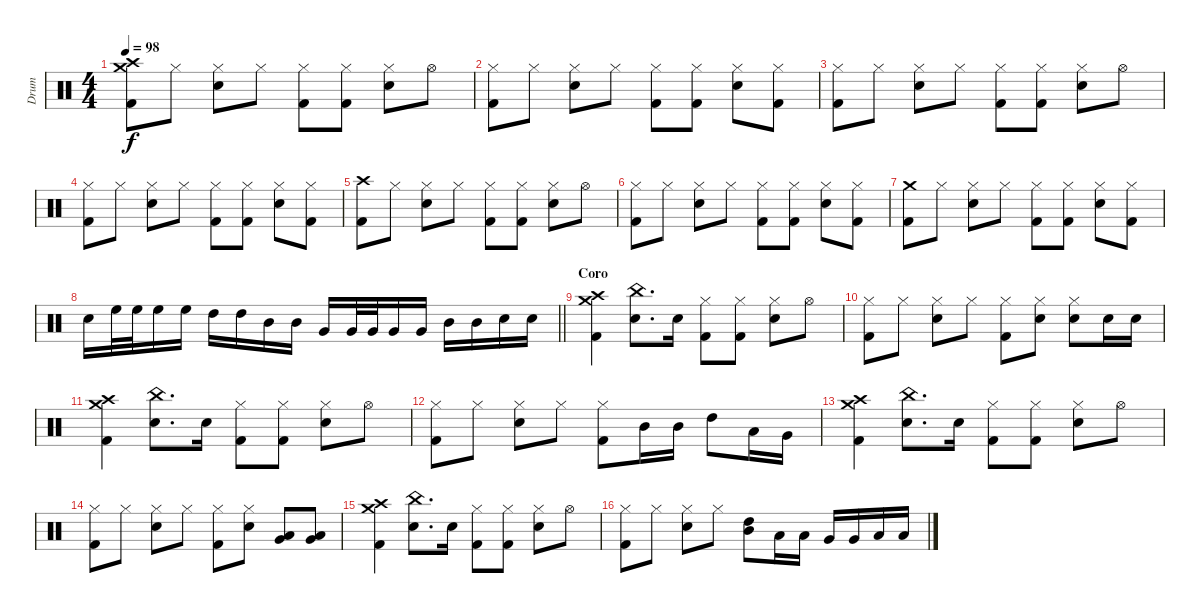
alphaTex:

\track ("Drum" "Drum") {instrument percussion}
\staff {score}
\articulation defaults
\ts (4 4)
\tempo 98
\clef neutral
\ks c
("Crash medium (hit)" "Crash high (hit)" "Kick (hit) 2").8{dy f} "Hi-Hat (closed)".8 ("Hi-Hat (closed)" "Snare (hit) 2").8 "Hi-Hat (closed)".8 ("Hi-Hat (closed)" "Kick (hit) 2").8 ("Hi-Hat (closed)" "Kick (hit) 2").8 ("Hi-Hat (closed)" "Snare (hit) 2").8 "Hi-Hat (open)".8 |
("Hi-Hat (closed)" "Kick (hit) 2").8 "Hi-Hat (closed)".8 ("Hi-Hat (closed)" "Snare (hit) 2").8 "Hi-Hat (closed)".8 ("Hi-Hat (closed)" "Kick (hit) 2").8 ("Hi-Hat (closed)" "Kick (hit) 2").8 ("Hi-Hat (closed)" "Snare (hit) 2").8 ("Hi-Hat (closed)" "Kick (hit) 2").8 |
("Hi-Hat (closed)" "Kick (hit) 2").8 "Hi-Hat (closed)".8 ("Hi-Hat (closed)" "Snare (hit) 2").8 "Hi-Hat (closed)".8 ("Hi-Hat (closed)" "Kick (hit) 2").8 ("Hi-Hat (closed)" "Kick (hit) 2").8 ("Hi-Hat (closed)" "Snare (hit) 2").8 "Hi-Hat (open)".8 |
("Hi-Hat (closed)" "Kick (hit) 2").8 "Hi-Hat (closed)".8 ("Hi-Hat (closed)" "Snare (hit) 2").8 "Hi-Hat (closed)".8 ("Hi-Hat (closed)" "Kick (hit) 2").8 ("Hi-Hat (closed)" "Kick (hit) 2").8 ("Hi-Hat (closed)" "Snare (hit) 2").8 ("Hi-Hat (closed)" "Kick (hit) 2").8 |
("Crash high (hit)" "Kick (hit) 2").8 "Hi-Hat (closed)".8 ("Hi-Hat (closed)" "Snare (hit) 2").8 "Hi-Hat (closed)".8 ("Hi-Hat (closed)" "Kick (hit) 2").8 ("Hi-Hat (closed)" "Kick (hit) 2").8 ("Hi-Hat (closed)" "Snare (hit) 2").8 "Hi-Hat (open)".8 |
("Hi-Hat (closed)" "Kick (hit) 2").8 "Hi-Hat (closed)".8 ("Hi-Hat (closed)" "Snare (hit) 2").8 "Hi-Hat (closed)".8 ("Hi-Hat (closed)" "Kick (hit) 2").8 ("Hi-Hat (closed)" "Kick (hit) 2").8 ("Hi-Hat (closed)" "Snare (hit) 2").8 ("Hi-Hat (closed)" "Kick (hit) 2").8 |
("Crash medium (hit)" "Kick (hit) 2").8 "Hi-Hat (closed)".8 ("Hi-Hat (closed)" "Snare (hit) 2").8 "Hi-Hat (closed)".8 ("Hi-Hat (closed)" "Kick (hit) 2").8 ("Hi-Hat (closed)" "Kick (hit) 2").8 ("Hi-Hat (closed)" "Snare (hit) 2").8 ("Hi-Hat (closed)" "Kick (hit) 2").8 |
\barLineRight lightlight "Snare (hit) 2".16 "High Floor Tom (hit)".32 "High Floor Tom (hit)".32 "High Floor Tom (hit)".16 "High Floor Tom (hit)".16 "High Tom (hit)".16 "High Tom (hit)".16 "Mid Tom (hit)".16 "Mid Tom (hit)".16 "Very Low Tom (hit)".16 "Very Low Tom (hit)".32 "Very Low Tom (hit)".32 "Very Low Tom (hit)".16 "Very Low Tom (hit)".16 "Mid Tom (hit)".16 "Mid Tom (hit)".16 "Snare (hit) 2".16 "Snare (hit) 2".16
|
\section ("" "Coro")
("Crash medium (hit)" "Crash high (hit)" "Kick (hit) 2").4 ("China (hit)" "Snare (hit) 2").8{d} "Snare (hit) 2".16 ("Hi-Hat (closed)" "Kick (hit) 2").8 ("Hi-Hat (closed)" "Kick (hit) 2").8 ("Hi-Hat (closed)" "Snare (hit) 2").8 "Hi-Hat (open)".8 |
("Hi-Hat (closed)" "Kick (hit) 2").8 "Hi-Hat (closed)".8 ("Hi-Hat (closed)" "Snare (hit) 2").8 "Hi-Hat (closed)".8 ("Hi-Hat (closed)" "Kick (hit) 2").8 ("Hi-Hat (closed)" "Snare (hit) 2").8 ("Hi-Hat (closed)" "Snare (hit) 2").8 "Snare (hit) 2".16 "Snare (hit) 2".16 |
("Crash medium (hit)" "Crash high (hit)" "Kick (hit) 2").4 ("China (hit)" "Snare (hit) 2").8{d} "Snare (hit) 2".16 ("Hi-Hat (closed)" "Kick (hit) 2").8 ("Hi-Hat (closed)" "Kick (hit) 2").8 ("Hi-Hat (closed)" "Snare (hit) 2").8 "Hi-Hat (open)".8 |
("Hi-Hat (closed)" "Kick (hit) 2").8 "Hi-Hat (closed)".8 ("Hi-Hat (closed)" "Snare (hit) 2").8 "Hi-Hat (closed)".8 ("Hi-Hat (closed)" "Kick (hit) 2").8 "Mid Tom (hit)".16 "Mid Tom (hit)".16 "High Tom (hit)".8 "Low Tom (hit)".16 "Very Low Tom (hit)".16 |
("Crash medium (hit)" "Crash high (hit)" "Kick (hit) 2").4 ("China (hit)" "Snare (hit) 2").8{d} "Snare (hit) 2".16 ("Hi-Hat (closed)" "Kick (hit) 2").8 ("Hi-Hat (closed)" "Kick (hit) 2").8 ("Hi-Hat (closed)" "Snare (hit) 2").8 "Hi-Hat (open)".8 |
("Hi-Hat (closed)" "Kick (hit) 2").8 "Hi-Hat (closed)".8 ("Hi-Hat (closed)" "Snare (hit) 2").8 "Hi-Hat (closed)".8 ("Hi-Hat (closed)" "Kick (hit) 2").8 ("Hi-Hat (closed)" "Snare (hit) 2").8 ("Low Tom (hit)" "Very Low Tom (hit)").8 ("Low Floor Tom (hit)" "Very Low Tom (hit)").8 |
("Crash medium (hit)" "Crash high (hit)" "Kick (hit) 2").4 ("China (hit)" "Snare (hit) 2").8{d} "Snare (hit) 2".16 ("Hi-Hat (closed)" "Kick (hit) 2").8 ("Hi-Hat (closed)" "Kick (hit) 2").8 ("Hi-Hat (closed)" "Snare (hit) 2").8 "Hi-Hat (open)".8 |
("Hi-Hat (closed)" "Kick (hit) 2").8 "Hi-Hat (closed)".8 ("Hi-Hat (closed)" "Snare (hit) 2").8 "Hi-Hat (closed)".8 ("High Tom (hit)" "Mid Tom (hit)").8 "Low Tom (hit)".16 "Low Tom (hit)".16 "Very Low Tom (hit)".16 "Very Low Tom (hit)".16 "Low Floor Tom (hit)".16 "Low Floor Tom (hit)".16
